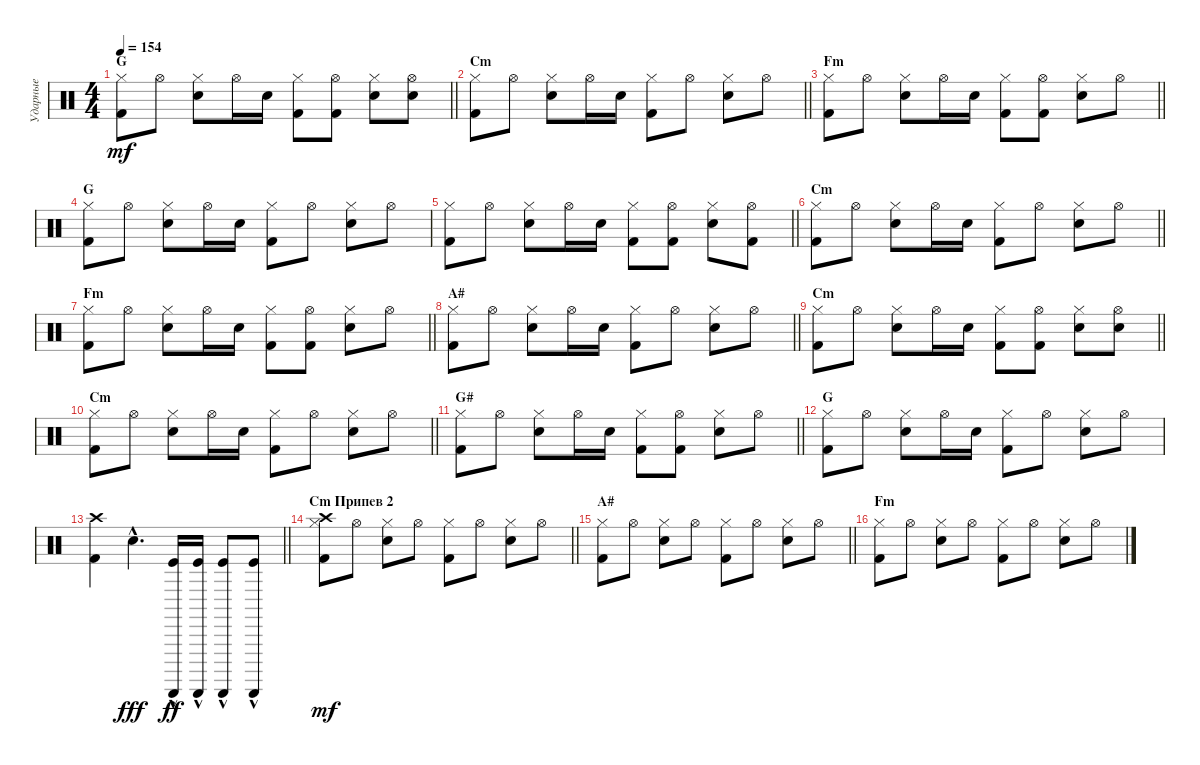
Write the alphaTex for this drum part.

\track ("Ударные" "Ударные") {instrument percussion}
\staff {score}
\articulation defaults
\ts (4 4)
\section ("" "G")
\tempo 154
\clef neutral
\barLineRight lightlight
\ks c
("Hi-Hat (closed)" "Kick (hit) 2").8{dy mf} "Hi-Hat (open)".8 ("Hi-Hat (closed)" "Electric Snare (hit)").8 "Hi-Hat (open)".16 "Electric Snare (hit)".16 ("Hi-Hat (closed)" "Kick (hit) 2").8 ("Hi-Hat (open)" "Kick (hit) 2").8 ("Hi-Hat (closed)" "Electric Snare (hit)").8 ("Hi-Hat (open)" "Electric Snare (hit)").8 |
\section ("" "Cm")
\barLineRight lightlight
("Hi-Hat (closed)" "Kick (hit) 2").8 "Hi-Hat (open)".8 ("Hi-Hat (closed)" "Electric Snare (hit)").8 "Hi-Hat (open)".16 "Electric Snare (hit)".16 ("Hi-Hat (closed)" "Kick (hit) 2").8 "Hi-Hat (open)".8 ("Hi-Hat (closed)" "Electric Snare (hit)").8 "Hi-Hat (open)".8 |
\section ("" "Fm")
\barLineRight lightlight
("Hi-Hat (closed)" "Kick (hit) 2").8 "Hi-Hat (open)".8 ("Hi-Hat (closed)" "Electric Snare (hit)").8 "Hi-Hat (open)".16 "Electric Snare (hit)".16 ("Hi-Hat (closed)" "Kick (hit) 2").8 ("Hi-Hat (open)" "Kick (hit) 2").8 ("Hi-Hat (closed)" "Electric Snare (hit)").8 "Hi-Hat (open)".8 |
\section ("" "G")
("Hi-Hat (closed)" "Kick (hit) 2").8 "Hi-Hat (open)".8 ("Hi-Hat (closed)" "Electric Snare (hit)").8 "Hi-Hat (open)".16 "Electric Snare (hit)".16 ("Hi-Hat (closed)" "Kick (hit) 2").8 "Hi-Hat (open)".8 ("Hi-Hat (closed)" "Electric Snare (hit)").8 "Hi-Hat (open)".8 |
\barLineRight lightlight
("Hi-Hat (closed)" "Kick (hit) 2").8 "Hi-Hat (open)".8 ("Hi-Hat (closed)" "Electric Snare (hit)").8 "Hi-Hat (open)".16 "Electric Snare (hit)".16 ("Hi-Hat (closed)" "Kick (hit) 2").8 ("Hi-Hat (open)" "Kick (hit) 2").8 ("Hi-Hat (closed)" "Electric Snare (hit)").8 ("Hi-Hat (open)" "Kick (hit) 2").8 |
\section ("" "Cm")
\barLineRight lightlight
("Hi-Hat (closed)" "Kick (hit) 2").8 "Hi-Hat (open)".8 ("Hi-Hat (closed)" "Electric Snare (hit)").8 "Hi-Hat (open)".16 "Electric Snare (hit)".16 ("Hi-Hat (closed)" "Kick (hit) 2").8 "Hi-Hat (open)".8 ("Hi-Hat (closed)" "Electric Snare (hit)").8 "Hi-Hat (open)".8 |
\section ("" "Fm")
\barLineRight lightlight
("Hi-Hat (closed)" "Kick (hit) 2").8 "Hi-Hat (open)".8 ("Hi-Hat (closed)" "Electric Snare (hit)").8 "Hi-Hat (open)".16 "Electric Snare (hit)".16 ("Hi-Hat (closed)" "Kick (hit) 2").8 ("Hi-Hat (open)" "Kick (hit) 2").8 ("Hi-Hat (closed)" "Electric Snare (hit)").8 "Hi-Hat (open)".8 |
\section ("" "A#")
\barLineRight lightlight
("Hi-Hat (closed)" "Kick (hit) 2").8 "Hi-Hat (open)".8 ("Hi-Hat (closed)" "Electric Snare (hit)").8 "Hi-Hat (open)".16 "Electric Snare (hit)".16 ("Hi-Hat (closed)" "Kick (hit) 2").8 "Hi-Hat (open)".8 ("Hi-Hat (closed)" "Electric Snare (hit)").8 "Hi-Hat (open)".8 |
\section ("" "Cm")
\barLineRight lightlight
("Hi-Hat (closed)" "Kick (hit) 2").8 "Hi-Hat (open)".8 ("Hi-Hat (closed)" "Electric Snare (hit)").8 "Hi-Hat (open)".16 "Electric Snare (hit)".16 ("Hi-Hat (closed)" "Kick (hit) 2").8 ("Hi-Hat (open)" "Kick (hit) 2").8 ("Hi-Hat (closed)" "Electric Snare (hit)").8 ("Hi-Hat (open)" "Electric Snare (hit)").8 |
\section ("" "Cm")
\barLineRight lightlight
("Hi-Hat (closed)" "Kick (hit) 2").8 "Hi-Hat (open)".8 ("Hi-Hat (closed)" "Electric Snare (hit)").8 "Hi-Hat (open)".16 "Electric Snare (hit)".16 ("Hi-Hat (closed)" "Kick (hit) 2").8 "Hi-Hat (open)".8 ("Hi-Hat (closed)" "Electric Snare (hit)").8 "Hi-Hat (open)".8 |
\section ("" "G#")
\barLineRight lightlight
("Hi-Hat (closed)" "Kick (hit) 2").8 "Hi-Hat (open)".8 ("Hi-Hat (closed)" "Electric Snare (hit)").8 "Hi-Hat (open)".16 "Electric Snare (hit)".16 ("Hi-Hat (closed)" "Kick (hit) 2").8 ("Hi-Hat (open)" "Kick (hit) 2").8 ("Hi-Hat (closed)" "Electric Snare (hit)").8 "Hi-Hat (open)".8 |
\section ("" "G")
("Hi-Hat (closed)" "Kick (hit) 2").8 "Hi-Hat (open)".8 ("Hi-Hat (closed)" "Electric Snare (hit)").8 "Hi-Hat (open)".16 "Electric Snare (hit)".16 ("Hi-Hat (closed)" "Kick (hit) 2").8 "Hi-Hat (open)".8 ("Hi-Hat (closed)" "Electric Snare (hit)").8 "Hi-Hat (open)".8 |
\barLineRight lightlight
("Kick (hit) 2" "Crash high (hit)").4 "Snare (hit)"{hac}.4{d dy fff} ("Guiro (scrap-return)"{hac} "Kick (hit)").16{dy ff} ("Guiro (scrap-return)"{hac} "Kick (hit)").16 ("Guiro (scrap-return)"{hac} "Kick (hit)").8 ("Guiro (scrap-return)"{hac} "Kick (hit)").8 |
\section ("" "Cm Припев 2")
\barLineRight lightlight
("Hi-Hat (closed)" "Kick (hit) 2" "Crash high (hit)").8{dy mf} "Hi-Hat (open)".8 ("Hi-Hat (closed)" "Electric Snare (hit)").8 "Hi-Hat (open)".8 ("Hi-Hat (closed)" "Kick (hit) 2").8 "Hi-Hat (open)".8 ("Hi-Hat (closed)" "Electric Snare (hit)").8 "Hi-Hat (open)".8 |
\section ("" "A#")
\barLineRight lightlight
("Hi-Hat (closed)" "Kick (hit) 2").8 "Hi-Hat (open)".8 ("Hi-Hat (closed)" "Electric Snare (hit)").8 "Hi-Hat (open)".8 ("Hi-Hat (closed)" "Kick (hit) 2").8 "Hi-Hat (open)".8 ("Hi-Hat (closed)" "Electric Snare (hit)").8 "Hi-Hat (open)".8 |
\section ("" "Fm")
("Hi-Hat (closed)" "Kick (hit) 2").8 "Hi-Hat (open)".8 ("Hi-Hat (closed)" "Electric Snare (hit)").8 "Hi-Hat (open)".8 ("Hi-Hat (closed)" "Kick (hit) 2").8 "Hi-Hat (open)".8 ("Hi-Hat (closed)" "Electric Snare (hit)").8 "Hi-Hat (open)".8
